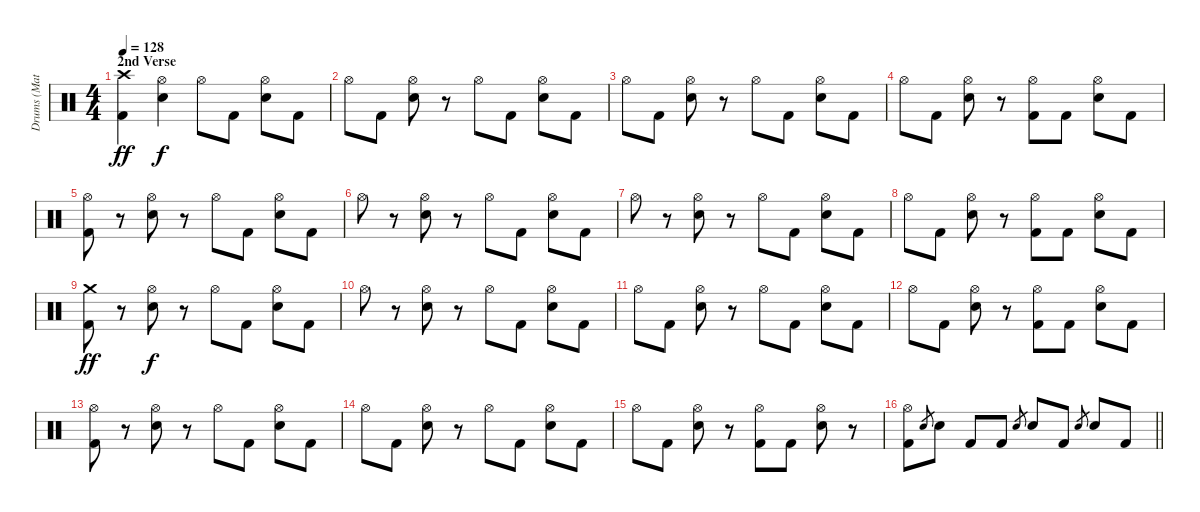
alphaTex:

\track ("Drums (Matt Sorum)" "Drums (Mat") {instrument percussion}
\staff {score}
\articulation defaults
\ts (4 4)
\section ("" "2nd Verse")
\tempo 128
\clef neutral
\ks c
("Crash high (hit)" "Kick (hit) 2").4{dy ff} ("Hi-Hat (open)" "Snare (hit) 2").4{dy f} "Hi-Hat (open)".8 "Kick (hit) 2".8 ("Hi-Hat (open)" "Snare (hit) 2").8 "Kick (hit) 2".8 |
"Hi-Hat (open)".8 "Kick (hit) 2".8 ("Hi-Hat (open)" "Snare (hit) 2").8 r.8 "Hi-Hat (open)".8 "Kick (hit) 2".8 ("Hi-Hat (open)" "Snare (hit) 2").8 "Kick (hit) 2".8 |
"Hi-Hat (open)".8 "Kick (hit) 2".8 ("Hi-Hat (open)" "Snare (hit) 2").8 r.8 "Hi-Hat (open)".8 "Kick (hit) 2".8 ("Hi-Hat (open)" "Snare (hit) 2").8 "Kick (hit) 2".8 |
"Hi-Hat (open)".8 "Kick (hit) 2".8 ("Hi-Hat (open)" "Snare (hit) 2").8 r.8 ("Hi-Hat (open)" "Kick (hit) 2").8 "Kick (hit) 2".8 ("Hi-Hat (open)" "Snare (hit) 2").8 "Kick (hit) 2".8 |
("Hi-Hat (open)" "Kick (hit) 2").8 r.8 ("Hi-Hat (open)" "Snare (hit) 2").8 r.8 "Hi-Hat (open)".8 "Kick (hit) 2".8 ("Hi-Hat (open)" "Snare (hit) 2").8 "Kick (hit) 2".8 |
"Hi-Hat (open)".8 r.8 ("Hi-Hat (open)" "Snare (hit) 2").8 r.8 "Hi-Hat (open)".8 "Kick (hit) 2".8 ("Hi-Hat (open)" "Snare (hit) 2").8 "Kick (hit) 2".8 |
"Hi-Hat (open)".8 r.8 ("Hi-Hat (open)" "Snare (hit) 2").8 r.8 "Hi-Hat (open)".8 "Kick (hit) 2".8 ("Hi-Hat (open)" "Snare (hit) 2").8 "Kick (hit) 2".8 |
"Hi-Hat (open)".8 "Kick (hit) 2".8 ("Hi-Hat (open)" "Snare (hit) 2").8 r.8 ("Hi-Hat (open)" "Kick (hit) 2").8 "Kick (hit) 2".8 ("Hi-Hat (open)" "Snare (hit) 2").8 "Kick (hit) 2".8 |
("Crash medium (hit)" "Kick (hit) 2").8{dy ff} r.8 ("Hi-Hat (open)" "Snare (hit) 2").8{dy f} r.8 "Hi-Hat (open)".8 "Kick (hit) 2".8 ("Hi-Hat (open)" "Snare (hit) 2").8 "Kick (hit) 2".8 |
"Hi-Hat (open)".8 r.8 ("Hi-Hat (open)" "Snare (hit) 2").8 r.8 "Hi-Hat (open)".8 "Kick (hit) 2".8 ("Hi-Hat (open)" "Snare (hit) 2").8 "Kick (hit) 2".8 |
"Hi-Hat (open)".8 "Kick (hit) 2".8 ("Hi-Hat (open)" "Snare (hit) 2").8 r.8 "Hi-Hat (open)".8 "Kick (hit) 2".8 ("Hi-Hat (open)" "Snare (hit) 2").8 "Kick (hit) 2".8 |
"Hi-Hat (open)".8 "Kick (hit) 2".8 ("Hi-Hat (open)" "Snare (hit) 2").8 r.8 ("Hi-Hat (open)" "Kick (hit) 2").8 "Kick (hit) 2".8 ("Hi-Hat (open)" "Snare (hit) 2").8 "Kick (hit) 2".8 |
("Hi-Hat (open)" "Kick (hit) 2").8 r.8 ("Hi-Hat (open)" "Snare (hit) 2").8 r.8 "Hi-Hat (open)".8 "Kick (hit) 2".8 ("Hi-Hat (open)" "Snare (hit) 2").8 "Kick (hit) 2".8 |
"Hi-Hat (open)".8 "Kick (hit) 2".8 ("Hi-Hat (open)" "Snare (hit) 2").8 r.8 "Hi-Hat (open)".8 "Kick (hit) 2".8 ("Hi-Hat (open)" "Snare (hit) 2").8 "Kick (hit) 2".8 |
"Hi-Hat (open)".8 "Kick (hit) 2".8 ("Hi-Hat (open)" "Snare (hit) 2").8 r.8 ("Hi-Hat (open)" "Kick (hit) 2").8 "Kick (hit) 2".8 ("Hi-Hat (open)" "Snare (hit) 2").8 r.8 |
\barLineRight lightlight
("Hi-Hat (open)" "Kick (hit) 2").8 "Snare (hit) 2".8{gr} "Snare (hit) 2".8 "Kick (hit) 2".8 "Kick (hit) 2".8 "Snare (hit) 2".8{gr} "Snare (hit) 2".8 "Kick (hit) 2".8 "Snare (hit) 2".8{gr} "Snare (hit) 2".8 "Kick (hit) 2".8
